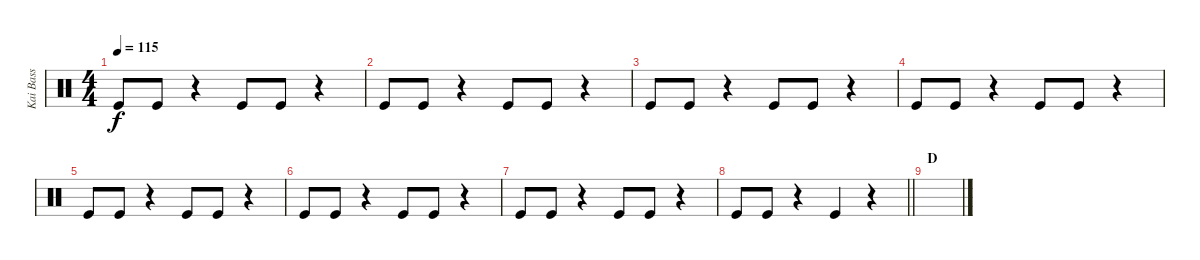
\track ("Kai Bass" "Kai Bass") {instrument percussion}
\staff {score}
\articulation defaults
\ts (4 4)
\tempo 115
\clef neutral
\ks c "Kick (hit)".8{dy f} "Kick (hit)".8
r.4 "Kick (hit)".8 "Kick (hit)".8 r.4 |
"Kick (hit)".8 "Kick (hit)".8 r.4 "Kick (hit)".8 "Kick (hit)".8 r.4 |
"Kick (hit)".8 "Kick (hit)".8 r.4 "Kick (hit)".8 "Kick (hit)".8 r.4 |
"Kick (hit)".8 "Kick (hit)".8 r.4 "Kick (hit)".8 "Kick (hit)".8 r.4 |
"Kick (hit)".8 "Kick (hit)".8 r.4 "Kick (hit)".8 "Kick (hit)".8 r.4 |
"Kick (hit)".8 "Kick (hit)".8 r.4 "Kick (hit)".8 "Kick (hit)".8 r.4 |
"Kick (hit)".8 "Kick (hit)".8 r.4 "Kick (hit)".8 "Kick (hit)".8 r.4 |
\barLineRight lightlight "Kick (hit)".8 "Kick (hit)".8
r.4 "Kick (hit)".4 r.4 |
\section ("" "D")
